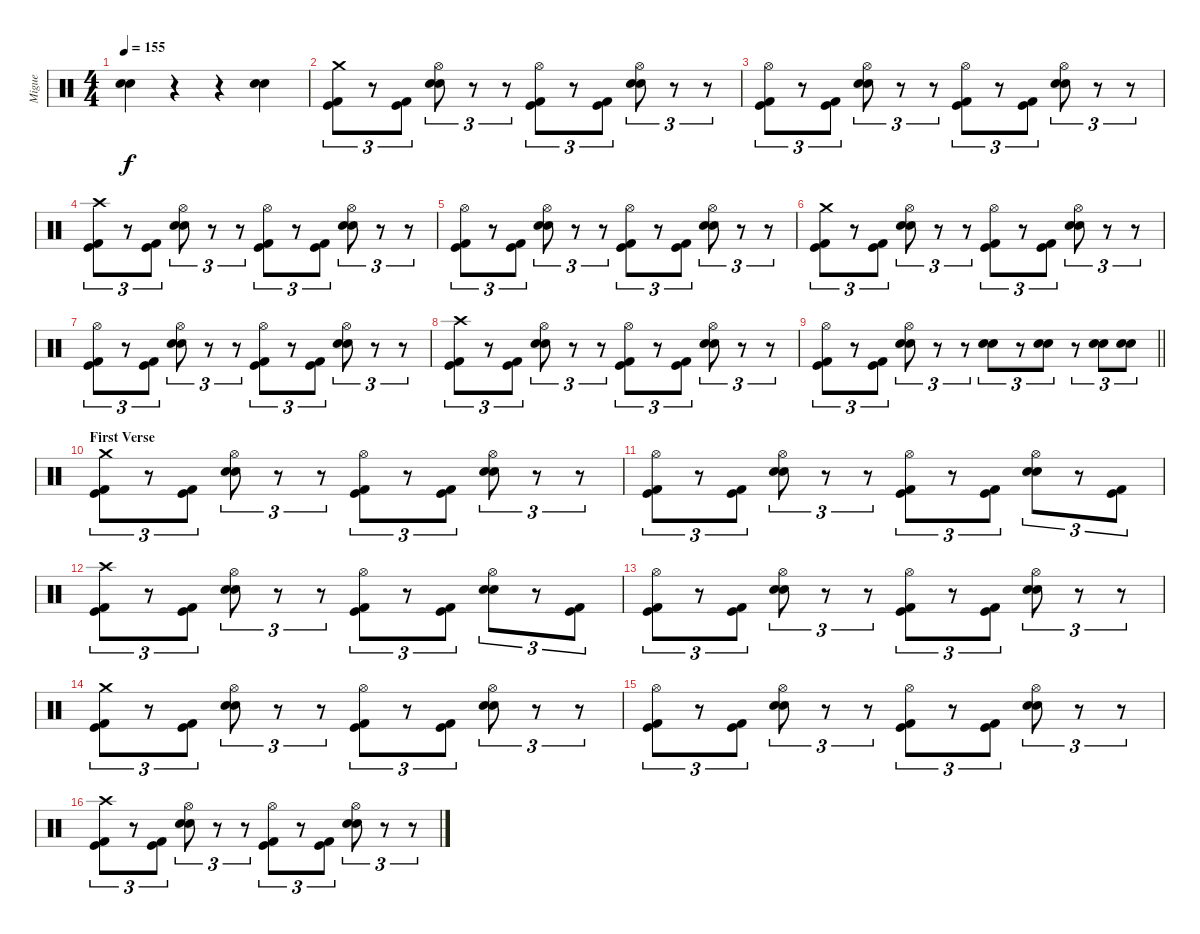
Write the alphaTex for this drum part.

\track ("Migue" "Migue") {instrument percussion}
\staff {score}
\articulation defaults
\ts (4 4)
\tempo 155
\clef neutral
\ks c
("Snare (hit) 2" "Snare (hit) 2").4{dy f} r.4 r.4 ("Snare (hit) 2" "Snare (hit) 2").4 |
("Crash medium (hit)" "Kick (hit) 2" "Kick (hit)").8{tu (3 2)} r.8{tu (3 2)} ("Kick (hit) 2" "Kick (hit)").8{tu (3 2)} ("Hi-Hat (open)" "Snare (hit) 2" "Snare (hit) 2").8{tu (3 2)} r.8{tu (3 2)} r.8{tu (3 2)} ("Hi-Hat (open)" "Kick (hit) 2" "Kick (hit)").8{tu (3 2)} r.8{tu (3 2)} ("Kick (hit) 2" "Kick (hit)").8{tu (3 2)} ("Hi-Hat (open)" "Snare (hit) 2" "Snare (hit) 2").8{tu (3 2)} r.8{tu (3 2)} r.8{tu (3 2)} |
("Hi-Hat (open)" "Kick (hit) 2" "Kick (hit)").8{tu (3 2)} r.8{tu (3 2)} ("Kick (hit) 2" "Kick (hit)").8{tu (3 2)} ("Hi-Hat (open)" "Snare (hit) 2" "Snare (hit) 2").8{tu (3 2)} r.8{tu (3 2)} r.8{tu (3 2)} ("Hi-Hat (open)" "Kick (hit) 2" "Kick (hit)").8{tu (3 2)} r.8{tu (3 2)} ("Kick (hit) 2" "Kick (hit)").8{tu (3 2)} ("Hi-Hat (open)" "Snare (hit) 2" "Snare (hit) 2").8{tu (3 2)} r.8{tu (3 2)} r.8{tu (3 2)} |
("Crash high (hit)" "Kick (hit) 2" "Kick (hit)").8{tu (3 2)} r.8{tu (3 2)} ("Kick (hit) 2" "Kick (hit)").8{tu (3 2)} ("Hi-Hat (open)" "Snare (hit) 2" "Snare (hit) 2").8{tu (3 2)} r.8{tu (3 2)} r.8{tu (3 2)} ("Hi-Hat (open)" "Kick (hit) 2" "Kick (hit)").8{tu (3 2)} r.8{tu (3 2)} ("Kick (hit) 2" "Kick (hit)").8{tu (3 2)} ("Hi-Hat (open)" "Snare (hit) 2" "Snare (hit) 2").8{tu (3 2)} r.8{tu (3 2)} r.8{tu (3 2)} |
("Hi-Hat (open)" "Kick (hit) 2" "Kick (hit)").8{tu (3 2)} r.8{tu (3 2)} ("Kick (hit) 2" "Kick (hit)").8{tu (3 2)} ("Hi-Hat (open)" "Snare (hit) 2" "Snare (hit) 2").8{tu (3 2)} r.8{tu (3 2)} r.8{tu (3 2)} ("Hi-Hat (open)" "Kick (hit) 2" "Kick (hit)").8{tu (3 2)} r.8{tu (3 2)} ("Kick (hit) 2" "Kick (hit)").8{tu (3 2)} ("Hi-Hat (open)" "Snare (hit) 2" "Snare (hit) 2").8{tu (3 2)} r.8{tu (3 2)} r.8{tu (3 2)} |
("Crash medium (hit)" "Kick (hit) 2" "Kick (hit)").8{tu (3 2)} r.8{tu (3 2)} ("Kick (hit) 2" "Kick (hit)").8{tu (3 2)} ("Hi-Hat (open)" "Snare (hit) 2" "Snare (hit) 2").8{tu (3 2)} r.8{tu (3 2)} r.8{tu (3 2)} ("Hi-Hat (open)" "Kick (hit) 2" "Kick (hit)").8{tu (3 2)} r.8{tu (3 2)} ("Kick (hit) 2" "Kick (hit)").8{tu (3 2)} ("Hi-Hat (open)" "Snare (hit) 2" "Snare (hit) 2").8{tu (3 2)} r.8{tu (3 2)} r.8{tu (3 2)} |
("Hi-Hat (open)" "Kick (hit) 2" "Kick (hit)").8{tu (3 2)} r.8{tu (3 2)} ("Kick (hit) 2" "Kick (hit)").8{tu (3 2)} ("Hi-Hat (open)" "Snare (hit) 2" "Snare (hit) 2").8{tu (3 2)} r.8{tu (3 2)} r.8{tu (3 2)} ("Hi-Hat (open)" "Kick (hit) 2" "Kick (hit)").8{tu (3 2)} r.8{tu (3 2)} ("Kick (hit) 2" "Kick (hit)").8{tu (3 2)} ("Hi-Hat (open)" "Snare (hit) 2" "Snare (hit) 2").8{tu (3 2)} r.8{tu (3 2)} r.8{tu (3 2)} |
("Crash high (hit)" "Kick (hit) 2" "Kick (hit)").8{tu (3 2)} r.8{tu (3 2)} ("Kick (hit) 2" "Kick (hit)").8{tu (3 2)} ("Hi-Hat (open)" "Snare (hit) 2" "Snare (hit) 2").8{tu (3 2)} r.8{tu (3 2)} r.8{tu (3 2)} ("Hi-Hat (open)" "Kick (hit) 2" "Kick (hit)").8{tu (3 2)} r.8{tu (3 2)} ("Kick (hit) 2" "Kick (hit)").8{tu (3 2)} ("Hi-Hat (open)" "Snare (hit) 2" "Snare (hit) 2").8{tu (3 2)} r.8{tu (3 2)} r.8{tu (3 2)} |
\barLineRight lightlight
("Hi-Hat (open)" "Kick (hit) 2" "Kick (hit)").8{tu (3 2)} r.8{tu (3 2)} ("Kick (hit) 2" "Kick (hit)").8{tu (3 2)} ("Hi-Hat (open)" "Snare (hit) 2" "Snare (hit) 2").8{tu (3 2)} r.8{tu (3 2)} r.8{tu (3 2)} ("Snare (hit) 2" "Snare (hit) 2").8{tu (3 2)} r.8{tu (3 2)} ("Snare (hit) 2" "Snare (hit) 2").8{tu (3 2)} r.8{tu (3 2)} ("Snare (hit) 2" "Snare (hit) 2").8{tu (3 2)} ("Snare (hit) 2" "Snare (hit) 2").8{tu (3 2)} |
\section ("" "First Verse")
("Crash medium (hit)" "Kick (hit) 2" "Kick (hit)").8{tu (3 2)} r.8{tu (3 2)} ("Kick (hit) 2" "Kick (hit)").8{tu (3 2)} ("Hi-Hat (open)" "Snare (hit) 2" "Snare (hit) 2").8{tu (3 2)} r.8{tu (3 2)} r.8{tu (3 2)} ("Hi-Hat (open)" "Kick (hit) 2" "Kick (hit)").8{tu (3 2)} r.8{tu (3 2)} ("Kick (hit) 2" "Kick (hit)").8{tu (3 2)} ("Hi-Hat (open)" "Snare (hit) 2" "Snare (hit) 2").8{tu (3 2)} r.8{tu (3 2)} r.8{tu (3 2)} |
("Hi-Hat (open)" "Kick (hit) 2" "Kick (hit)").8{tu (3 2)} r.8{tu (3 2)} ("Kick (hit) 2" "Kick (hit)").8{tu (3 2)} ("Hi-Hat (open)" "Snare (hit) 2" "Snare (hit) 2").8{tu (3 2)} r.8{tu (3 2)} r.8{tu (3 2)} ("Hi-Hat (open)" "Kick (hit) 2" "Kick (hit)").8{tu (3 2)} r.8{tu (3 2)} ("Kick (hit) 2" "Kick (hit)").8{tu (3 2)} ("Hi-Hat (open)" "Snare (hit) 2" "Snare (hit) 2").8{tu (3 2)} r.8{tu (3 2)} ("Kick (hit) 2" "Kick (hit)").8{tu (3 2)} |
("Crash high (hit)" "Kick (hit) 2" "Kick (hit)").8{tu (3 2)} r.8{tu (3 2)} ("Kick (hit) 2" "Kick (hit)").8{tu (3 2)} ("Hi-Hat (open)" "Snare (hit) 2" "Snare (hit) 2").8{tu (3 2)} r.8{tu (3 2)} r.8{tu (3 2)} ("Hi-Hat (open)" "Kick (hit) 2" "Kick (hit)").8{tu (3 2)} r.8{tu (3 2)} ("Kick (hit) 2" "Kick (hit)").8{tu (3 2)} ("Hi-Hat (open)" "Snare (hit) 2" "Snare (hit) 2").8{tu (3 2)} r.8{tu (3 2)} ("Kick (hit) 2" "Kick (hit)").8{tu (3 2)} |
("Hi-Hat (open)" "Kick (hit) 2" "Kick (hit)").8{tu (3 2)} r.8{tu (3 2)} ("Kick (hit) 2" "Kick (hit)").8{tu (3 2)} ("Hi-Hat (open)" "Snare (hit) 2" "Snare (hit) 2").8{tu (3 2)} r.8{tu (3 2)} r.8{tu (3 2)} ("Hi-Hat (open)" "Kick (hit) 2" "Kick (hit)").8{tu (3 2)} r.8{tu (3 2)} ("Kick (hit) 2" "Kick (hit)").8{tu (3 2)} ("Hi-Hat (open)" "Snare (hit) 2" "Snare (hit) 2").8{tu (3 2)} r.8{tu (3 2)} r.8{tu (3 2)} |
("Crash medium (hit)" "Kick (hit) 2" "Kick (hit)").8{tu (3 2)} r.8{tu (3 2)} ("Kick (hit) 2" "Kick (hit)").8{tu (3 2)} ("Hi-Hat (open)" "Snare (hit) 2" "Snare (hit) 2").8{tu (3 2)} r.8{tu (3 2)} r.8{tu (3 2)} ("Hi-Hat (open)" "Kick (hit) 2" "Kick (hit)").8{tu (3 2)} r.8{tu (3 2)} ("Kick (hit) 2" "Kick (hit)").8{tu (3 2)} ("Hi-Hat (open)" "Snare (hit) 2" "Snare (hit) 2").8{tu (3 2)} r.8{tu (3 2)} r.8{tu (3 2)} |
("Hi-Hat (open)" "Kick (hit) 2" "Kick (hit)").8{tu (3 2)} r.8{tu (3 2)} ("Kick (hit) 2" "Kick (hit)").8{tu (3 2)} ("Hi-Hat (open)" "Snare (hit) 2" "Snare (hit) 2").8{tu (3 2)} r.8{tu (3 2)} r.8{tu (3 2)} ("Hi-Hat (open)" "Kick (hit) 2" "Kick (hit)").8{tu (3 2)} r.8{tu (3 2)} ("Kick (hit) 2" "Kick (hit)").8{tu (3 2)} ("Hi-Hat (open)" "Snare (hit) 2" "Snare (hit) 2").8{tu (3 2)} r.8{tu (3 2)} r.8{tu (3 2)} |
("Crash high (hit)" "Kick (hit) 2" "Kick (hit)").8{tu (3 2)} r.8{tu (3 2)} ("Kick (hit) 2" "Kick (hit)").8{tu (3 2)} ("Hi-Hat (open)" "Snare (hit) 2" "Snare (hit) 2").8{tu (3 2)} r.8{tu (3 2)} r.8{tu (3 2)} ("Hi-Hat (open)" "Kick (hit) 2" "Kick (hit)").8{tu (3 2)} r.8{tu (3 2)} ("Kick (hit) 2" "Kick (hit)").8{tu (3 2)} ("Hi-Hat (open)" "Snare (hit) 2" "Snare (hit) 2").8{tu (3 2)} r.8{tu (3 2)} r.8{tu (3 2)}
